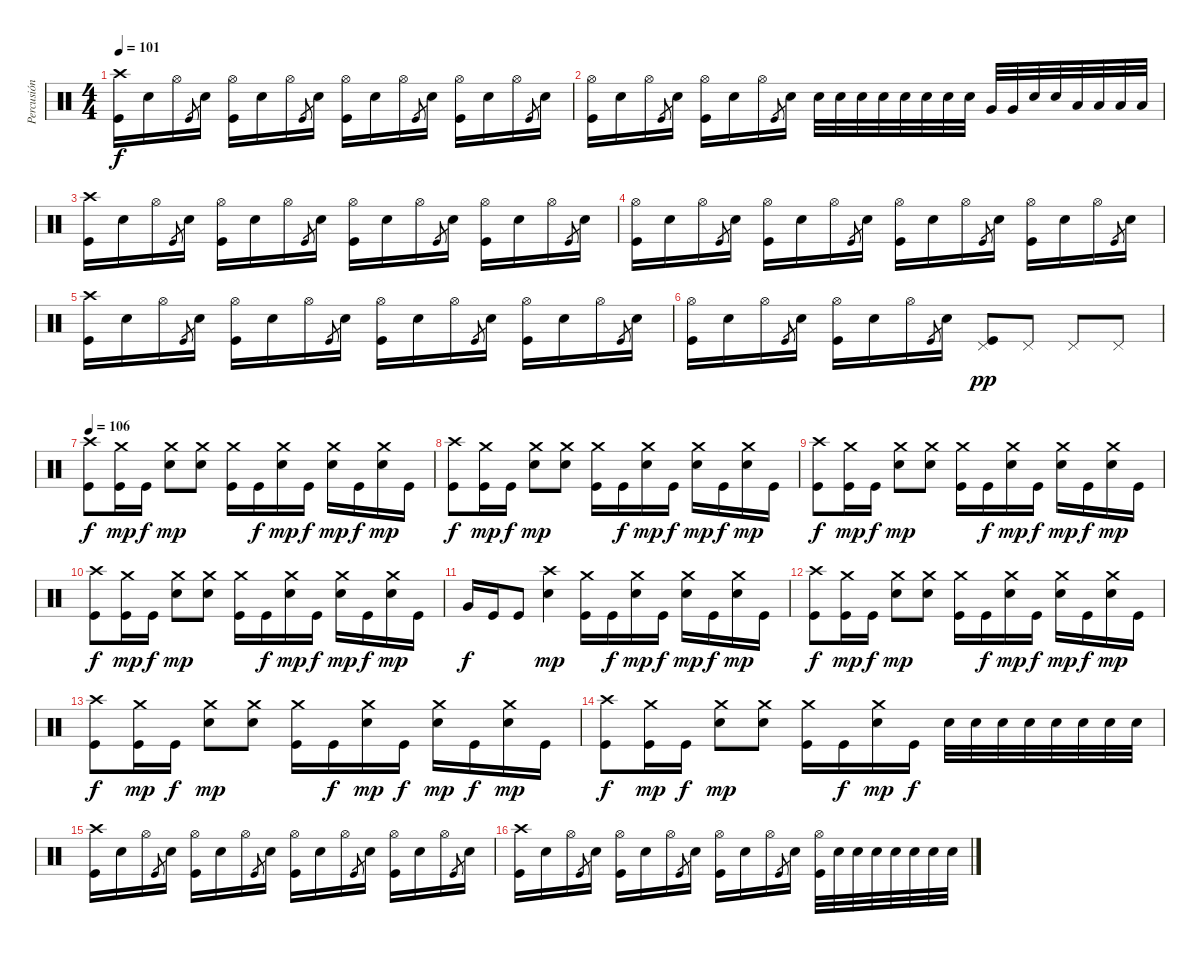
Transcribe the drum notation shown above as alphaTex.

\track ("Percusión" "Percusión") {instrument percussion}
\staff {score}
\articulation defaults
\ts (4 4)
\tempo 101
\clef neutral
\ks c
("Kick (hit)" "Crash high (hit)").16{dy f} "Snare (hit) 2".16 "Hi-Hat (open)".16 "Kick (hit)".8{gr} "Snare (hit) 2".16 ("Kick (hit)" "Hi-Hat (open)").16 "Snare (hit) 2".16 "Hi-Hat (open)".16 "Kick (hit)".8{gr} "Snare (hit) 2".16 ("Kick (hit)" "Hi-Hat (open)").16 "Snare (hit) 2".16 "Hi-Hat (open)".16 "Kick (hit)".8{gr} "Snare (hit) 2".16 ("Kick (hit)" "Hi-Hat (open)").16 "Snare (hit) 2".16 "Hi-Hat (open)".16 "Kick (hit)".8{gr} "Snare (hit) 2".16 |
("Kick (hit)" "Hi-Hat (open)").16 "Snare (hit) 2".16 "Hi-Hat (open)".16 "Kick (hit)".8{gr} "Snare (hit) 2".16 ("Kick (hit)" "Hi-Hat (open)").16 "Snare (hit) 2".16 "Hi-Hat (open)".16 "Kick (hit)".8{gr} "Snare (hit) 2".16 "Snare (hit) 2".32 "Snare (hit) 2".32 "Snare (hit) 2".32 "Snare (hit) 2".32 "Snare (hit) 2".32 "Snare (hit) 2".32 "Snare (hit) 2".32 "Snare (hit) 2".32 "Very Low Tom (hit)".32 "Very Low Tom (hit)".32 "Snare (hit) 2".32 "Snare (hit) 2".32 "Low Floor Tom (hit)".32 "Low Floor Tom (hit)".32 "Low Floor Tom (hit)".32 "Low Floor Tom (hit)".32 |
("Kick (hit)" "Crash high (hit)").16 "Snare (hit) 2".16 "Hi-Hat (open)".16 "Kick (hit)".8{gr} "Snare (hit) 2".16 ("Kick (hit)" "Hi-Hat (open)").16 "Snare (hit) 2".16 "Hi-Hat (open)".16 "Kick (hit)".8{gr} "Snare (hit) 2".16 ("Kick (hit)" "Hi-Hat (open)").16 "Snare (hit) 2".16 "Hi-Hat (open)".16 "Kick (hit)".8{gr} "Snare (hit) 2".16 ("Kick (hit)" "Hi-Hat (open)").16 "Snare (hit) 2".16 "Hi-Hat (open)".16 "Kick (hit)".8{gr} "Snare (hit) 2".16 |
("Kick (hit)" "Hi-Hat (open)").16 "Snare (hit) 2".16 "Hi-Hat (open)".16 "Kick (hit)".8{gr} "Snare (hit) 2".16 ("Kick (hit)" "Hi-Hat (open)").16 "Snare (hit) 2".16 "Hi-Hat (open)".16 "Kick (hit)".8{gr} "Snare (hit) 2".16 ("Kick (hit)" "Hi-Hat (open)").16 "Snare (hit) 2".16 "Hi-Hat (open)".16 "Kick (hit)".8{gr} "Snare (hit) 2".16 ("Kick (hit)" "Hi-Hat (open)").16 "Snare (hit) 2".16 "Hi-Hat (open)".16 "Kick (hit)".8{gr} "Snare (hit) 2".16 |
("Kick (hit)" "Crash high (hit)").16 "Snare (hit) 2".16 "Hi-Hat (open)".16 "Kick (hit)".8{gr} "Snare (hit) 2".16 ("Kick (hit)" "Hi-Hat (open)").16 "Snare (hit) 2".16 "Hi-Hat (open)".16 "Kick (hit)".8{gr} "Snare (hit) 2".16 ("Kick (hit)" "Hi-Hat (open)").16 "Snare (hit) 2".16 "Hi-Hat (open)".16 "Kick (hit)".8{gr} "Snare (hit) 2".16 ("Kick (hit)" "Hi-Hat (open)").16 "Snare (hit) 2".16 "Hi-Hat (open)".16 "Kick (hit)".8{gr} "Snare (hit) 2".16 |
("Kick (hit)" "Hi-Hat (open)").16 "Snare (hit) 2".16 "Hi-Hat (open)".16 "Kick (hit)".8{gr} "Snare (hit) 2".16 ("Kick (hit)" "Hi-Hat (open)").16 "Snare (hit) 2".16 "Hi-Hat (open)".16 "Kick (hit)".8{gr} "Snare (hit) 2".16 ("Kick (hit)" "Pedal Hi-Hat (hit)").8{dy pp} "Pedal Hi-Hat (hit)".8 "Pedal Hi-Hat (hit)".8 "Pedal Hi-Hat (hit)".8 |
\tempo 106
("Kick (hit)" "Crash high (hit)").8{dy f} ("Kick (hit)" "Crash medium (hit)").16{dy mp} "Kick (hit)".16{dy f} ("Snare (hit) 2" "Crash medium (hit)").8{dy mp} ("Snare (hit) 2" "Crash medium (hit)").8 ("Kick (hit)" "Crash medium (hit)").16 "Kick (hit)".16{dy f} ("Snare (hit) 2" "Crash medium (hit)").16{dy mp} "Kick (hit)".16{dy f} ("Snare (hit) 2" "Crash medium (hit)").16{dy mp} "Kick (hit)".16{dy f} ("Snare (hit) 2" "Crash medium (hit)").16{dy mp} "Kick (hit)".16 |
("Kick (hit)" "Crash high (hit)").8{dy f} ("Kick (hit)" "Crash medium (hit)").16{dy mp} "Kick (hit)".16{dy f} ("Snare (hit) 2" "Crash medium (hit)").8{dy mp} ("Snare (hit) 2" "Crash medium (hit)").8 ("Kick (hit)" "Crash medium (hit)").16 "Kick (hit)".16{dy f} ("Snare (hit) 2" "Crash medium (hit)").16{dy mp} "Kick (hit)".16{dy f} ("Snare (hit) 2" "Crash medium (hit)").16{dy mp} "Kick (hit)".16{dy f} ("Snare (hit) 2" "Crash medium (hit)").16{dy mp} "Kick (hit)".16 |
("Kick (hit)" "Crash high (hit)").8{dy f} ("Kick (hit)" "Crash medium (hit)").16{dy mp} "Kick (hit)".16{dy f} ("Snare (hit) 2" "Crash medium (hit)").8{dy mp} ("Snare (hit) 2" "Crash medium (hit)").8 ("Kick (hit)" "Crash medium (hit)").16 "Kick (hit)".16{dy f} ("Snare (hit) 2" "Crash medium (hit)").16{dy mp} "Kick (hit)".16{dy f} ("Snare (hit) 2" "Crash medium (hit)").16{dy mp} "Kick (hit)".16{dy f} ("Snare (hit) 2" "Crash medium (hit)").16{dy mp} "Kick (hit)".16 |
("Kick (hit)" "Crash high (hit)").8{dy f} ("Kick (hit)" "Crash medium (hit)").16{dy mp} "Kick (hit)".16{dy f} ("Snare (hit) 2" "Crash medium (hit)").8{dy mp} ("Snare (hit) 2" "Crash medium (hit)").8 ("Kick (hit)" "Crash medium (hit)").16 "Kick (hit)".16{dy f} ("Snare (hit) 2" "Crash medium (hit)").16{dy mp} "Kick (hit)".16{dy f} ("Snare (hit) 2" "Crash medium (hit)").16{dy mp} "Kick (hit)".16{dy f} ("Snare (hit) 2" "Crash medium (hit)").16{dy mp} "Kick (hit)".16 |
"Very Low Tom (hit)".16{dy f} "Kick (hit)".16 "Kick (hit)".8 ("Snare (hit) 2" "Crash high (hit)").4{dy mp} ("Kick (hit)" "Crash medium (hit)").16 "Kick (hit)".16{dy f} ("Snare (hit) 2" "Crash medium (hit)").16{dy mp} "Kick (hit)".16{dy f} ("Snare (hit) 2" "Crash medium (hit)").16{dy mp} "Kick (hit)".16{dy f} ("Snare (hit) 2" "Crash medium (hit)").16{dy mp} "Kick (hit)".16 |
("Kick (hit)" "Crash high (hit)").8{dy f} ("Kick (hit)" "Crash medium (hit)").16{dy mp} "Kick (hit)".16{dy f} ("Snare (hit) 2" "Crash medium (hit)").8{dy mp} ("Snare (hit) 2" "Crash medium (hit)").8 ("Kick (hit)" "Crash medium (hit)").16 "Kick (hit)".16{dy f} ("Snare (hit) 2" "Crash medium (hit)").16{dy mp} "Kick (hit)".16{dy f} ("Snare (hit) 2" "Crash medium (hit)").16{dy mp} "Kick (hit)".16{dy f} ("Snare (hit) 2" "Crash medium (hit)").16{dy mp} "Kick (hit)".16 |
("Kick (hit)" "Crash high (hit)").8{dy f} ("Kick (hit)" "Crash medium (hit)").16{dy mp} "Kick (hit)".16{dy f} ("Snare (hit) 2" "Crash medium (hit)").8{dy mp} ("Snare (hit) 2" "Crash medium (hit)").8 ("Kick (hit)" "Crash medium (hit)").16 "Kick (hit)".16{dy f} ("Snare (hit) 2" "Crash medium (hit)").16{dy mp} "Kick (hit)".16{dy f} ("Snare (hit) 2" "Crash medium (hit)").16{dy mp} "Kick (hit)".16{dy f} ("Snare (hit) 2" "Crash medium (hit)").16{dy mp} "Kick (hit)".16 |
("Kick (hit)" "Crash high (hit)").8{dy f} ("Kick (hit)" "Crash medium (hit)").16{dy mp} "Kick (hit)".16{dy f} ("Snare (hit) 2" "Crash medium (hit)").8{dy mp} ("Snare (hit) 2" "Crash medium (hit)").8 ("Kick (hit)" "Crash medium (hit)").16 "Kick (hit)".16{dy f} ("Snare (hit) 2" "Crash medium (hit)").16{dy mp} "Kick (hit)".16{dy f} "Snare (hit) 2".32 "Snare (hit) 2".32 "Snare (hit) 2".32 "Snare (hit) 2".32 "Snare (hit) 2".32 "Snare (hit) 2".32 "Snare (hit) 2".32 "Snare (hit) 2".32 |
("Kick (hit)" "Crash high (hit)").16 "Snare (hit) 2".16 "Hi-Hat (open)".16 "Kick (hit)".8{gr} "Snare (hit) 2".16 ("Kick (hit)" "Hi-Hat (open)").16 "Snare (hit) 2".16 "Hi-Hat (open)".16 "Kick (hit)".8{gr} "Snare (hit) 2".16 ("Kick (hit)" "Hi-Hat (open)").16 "Snare (hit) 2".16 "Hi-Hat (open)".16 "Kick (hit)".8{gr} "Snare (hit) 2".16 ("Kick (hit)" "Hi-Hat (open)").16 "Snare (hit) 2".16 "Hi-Hat (open)".16 "Kick (hit)".8{gr} "Snare (hit) 2".16 |
("Kick (hit)" "Crash high (hit)").16 "Snare (hit) 2".16 "Hi-Hat (open)".16 "Kick (hit)".8{gr} "Snare (hit) 2".16 ("Kick (hit)" "Hi-Hat (open)").16 "Snare (hit) 2".16 "Hi-Hat (open)".16 "Kick (hit)".8{gr} "Snare (hit) 2".16 ("Kick (hit)" "Hi-Hat (open)").16 "Snare (hit) 2".16 "Hi-Hat (open)".16 "Kick (hit)".8{gr} "Snare (hit) 2".16 ("Kick (hit)" "Hi-Hat (open)").32 "Snare (hit) 2".32 "Snare (hit) 2".32 "Snare (hit) 2".32 "Snare (hit) 2".32 "Snare (hit) 2".32 "Snare (hit) 2".32 "Snare (hit) 2".32
